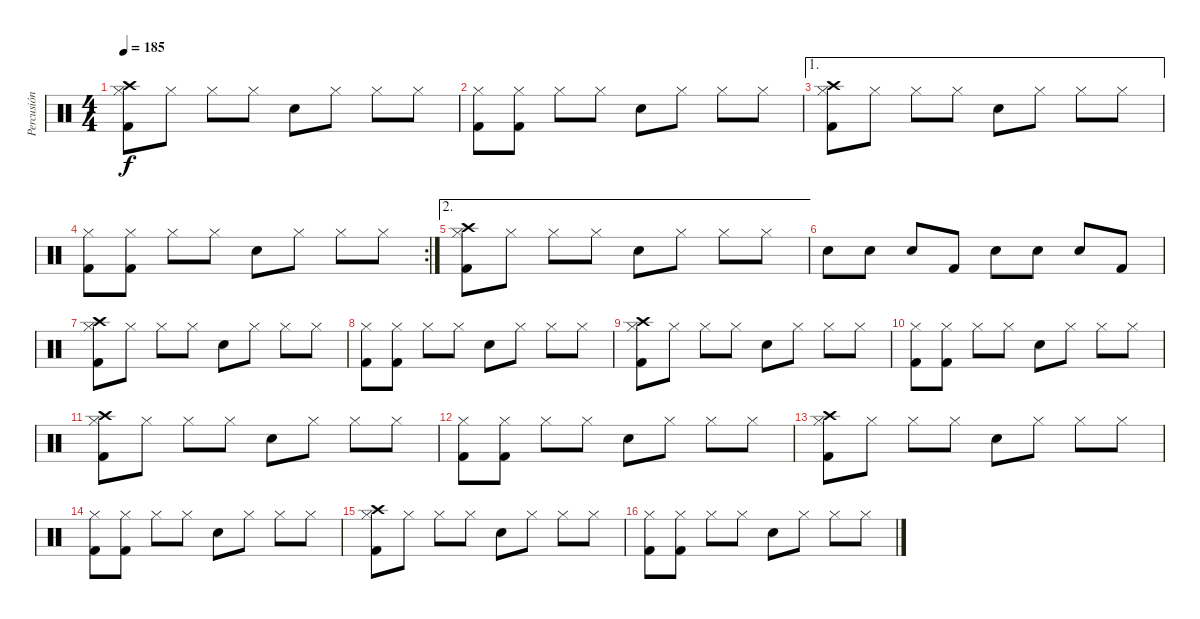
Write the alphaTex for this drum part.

\track ("Percusión" "Percusión") {instrument percussion}
\staff {score}
\articulation defaults
\ts (4 4)
\tempo 185
\clef neutral
\ks c
("Crash high (hit)" "Hi-Hat (closed)" "Kick (hit) 2").8{dy f} "Hi-Hat (closed)".8 "Hi-Hat (closed)".8 "Hi-Hat (closed)".8 "Electric Snare (hit)".8 "Hi-Hat (closed)".8 "Hi-Hat (closed)".8 "Hi-Hat (closed)".8 |
("Hi-Hat (closed)" "Kick (hit) 2").8 ("Hi-Hat (closed)" "Kick (hit) 2").8 "Hi-Hat (closed)".8 "Hi-Hat (closed)".8 "Electric Snare (hit)".8 "Hi-Hat (closed)".8 "Hi-Hat (closed)".8 "Hi-Hat (closed)".8 |
\ae 1
("Crash high (hit)" "Hi-Hat (closed)" "Kick (hit) 2").8 "Hi-Hat (closed)".8 "Hi-Hat (closed)".8 "Hi-Hat (closed)".8 "Electric Snare (hit)".8 "Hi-Hat (closed)".8 "Hi-Hat (closed)".8 "Hi-Hat (closed)".8 |
\rc 2
("Hi-Hat (closed)" "Kick (hit) 2").8 ("Hi-Hat (closed)" "Kick (hit) 2").8 "Hi-Hat (closed)".8 "Hi-Hat (closed)".8 "Electric Snare (hit)".8 "Hi-Hat (closed)".8 "Hi-Hat (closed)".8 "Hi-Hat (closed)".8 |
\ae 2
("Crash high (hit)" "Hi-Hat (closed)" "Kick (hit) 2").8 "Hi-Hat (closed)".8 "Hi-Hat (closed)".8 "Hi-Hat (closed)".8 "Electric Snare (hit)".8 "Hi-Hat (closed)".8 "Hi-Hat (closed)".8 "Hi-Hat (closed)".8 |
"Electric Snare (hit)".8 "Electric Snare (hit)".8 "Electric Snare (hit)".8 "Kick (hit) 2".8 "Electric Snare (hit)".8 "Electric Snare (hit)".8 "Electric Snare (hit)".8 "Kick (hit) 2".8 |
("Crash high (hit)" "Hi-Hat (closed)" "Kick (hit) 2").8 "Hi-Hat (closed)".8 "Hi-Hat (closed)".8 "Hi-Hat (closed)".8 "Electric Snare (hit)".8 "Hi-Hat (closed)".8 "Hi-Hat (closed)".8 "Hi-Hat (closed)".8 |
("Hi-Hat (closed)" "Kick (hit) 2").8 ("Hi-Hat (closed)" "Kick (hit) 2").8 "Hi-Hat (closed)".8 "Hi-Hat (closed)".8 "Electric Snare (hit)".8 "Hi-Hat (closed)".8 "Hi-Hat (closed)".8 "Hi-Hat (closed)".8 |
("Crash high (hit)" "Hi-Hat (closed)" "Kick (hit) 2").8 "Hi-Hat (closed)".8 "Hi-Hat (closed)".8 "Hi-Hat (closed)".8 "Electric Snare (hit)".8 "Hi-Hat (closed)".8 "Hi-Hat (closed)".8 "Hi-Hat (closed)".8 |
("Hi-Hat (closed)" "Kick (hit) 2").8 ("Hi-Hat (closed)" "Kick (hit) 2").8 "Hi-Hat (closed)".8 "Hi-Hat (closed)".8 "Electric Snare (hit)".8 "Hi-Hat (closed)".8 "Hi-Hat (closed)".8 "Hi-Hat (closed)".8 |
("Crash high (hit)" "Hi-Hat (closed)" "Kick (hit) 2").8 "Hi-Hat (closed)".8 "Hi-Hat (closed)".8 "Hi-Hat (closed)".8 "Electric Snare (hit)".8 "Hi-Hat (closed)".8 "Hi-Hat (closed)".8 "Hi-Hat (closed)".8 |
("Hi-Hat (closed)" "Kick (hit) 2").8 ("Hi-Hat (closed)" "Kick (hit) 2").8 "Hi-Hat (closed)".8 "Hi-Hat (closed)".8 "Electric Snare (hit)".8 "Hi-Hat (closed)".8 "Hi-Hat (closed)".8 "Hi-Hat (closed)".8 |
("Crash high (hit)" "Hi-Hat (closed)" "Kick (hit) 2").8 "Hi-Hat (closed)".8 "Hi-Hat (closed)".8 "Hi-Hat (closed)".8 "Electric Snare (hit)".8 "Hi-Hat (closed)".8 "Hi-Hat (closed)".8 "Hi-Hat (closed)".8 |
("Hi-Hat (closed)" "Kick (hit) 2").8 ("Hi-Hat (closed)" "Kick (hit) 2").8 "Hi-Hat (closed)".8 "Hi-Hat (closed)".8 "Electric Snare (hit)".8 "Hi-Hat (closed)".8 "Hi-Hat (closed)".8 "Hi-Hat (closed)".8 |
("Crash high (hit)" "Hi-Hat (closed)" "Kick (hit) 2").8 "Hi-Hat (closed)".8 "Hi-Hat (closed)".8 "Hi-Hat (closed)".8 "Electric Snare (hit)".8 "Hi-Hat (closed)".8 "Hi-Hat (closed)".8 "Hi-Hat (closed)".8 |
("Hi-Hat (closed)" "Kick (hit) 2").8 ("Hi-Hat (closed)" "Kick (hit) 2").8 "Hi-Hat (closed)".8 "Hi-Hat (closed)".8 "Electric Snare (hit)".8 "Hi-Hat (closed)".8 "Hi-Hat (closed)".8 "Hi-Hat (closed)".8
